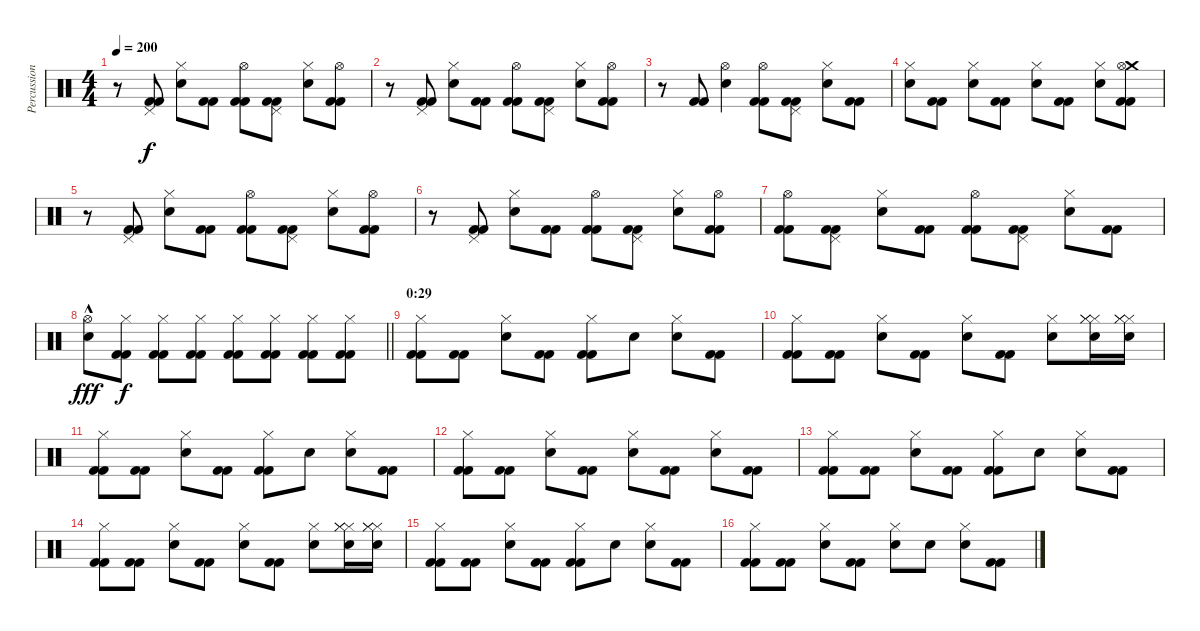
\track ("Percussion" "Percussion") {instrument percussion}
\staff {score}
\articulation defaults
\ts (4 4)
\tempo 200
\clef neutral
\ks c
r.8{dy f} ("Pedal Hi-Hat (hit)" "Kick (hit) 2" "Kick (hit) 2").8 ("Hi-Hat (closed)" "Snare (hit) 2").8 ("Kick (hit) 2" "Kick (hit) 2").8 ("Hi-Hat (open)" "Kick (hit) 2" "Kick (hit) 2").8 ("Pedal Hi-Hat (hit)" "Kick (hit) 2" "Kick (hit) 2").8 ("Hi-Hat (closed)" "Snare (hit) 2").8 ("Hi-Hat (open)" "Kick (hit) 2" "Kick (hit) 2").8 |
r.8 ("Pedal Hi-Hat (hit)" "Kick (hit) 2" "Kick (hit) 2").8 ("Hi-Hat (closed)" "Snare (hit) 2").8 ("Kick (hit) 2" "Kick (hit) 2").8 ("Hi-Hat (open)" "Kick (hit) 2" "Kick (hit) 2").8 ("Pedal Hi-Hat (hit)" "Kick (hit) 2" "Kick (hit) 2").8 ("Hi-Hat (closed)" "Snare (hit) 2").8 ("Hi-Hat (open)" "Kick (hit) 2" "Kick (hit) 2").8 |
r.8 ("Kick (hit) 2" "Kick (hit) 2").8 ("Hi-Hat (open)" "Snare (hit) 2").4 ("Hi-Hat (open)" "Kick (hit) 2" "Kick (hit) 2").8 ("Pedal Hi-Hat (hit)" "Kick (hit) 2" "Kick (hit) 2").8 ("Hi-Hat (closed)" "Snare (hit) 2").8 ("Kick (hit) 2" "Kick (hit) 2").8 |
("Hi-Hat (closed)" "Snare (hit) 2").8 ("Kick (hit) 2" "Kick (hit) 2").8 ("Hi-Hat (closed)" "Snare (hit) 2").8 ("Kick (hit) 2" "Kick (hit) 2").8 ("Hi-Hat (closed)" "Snare (hit) 2").8 ("Kick (hit) 2" "Kick (hit) 2").8 ("Hi-Hat (closed)" "Snare (hit) 2").8 ("Crash medium (hit)" "Hi-Hat (open)" "Kick (hit) 2" "Kick (hit) 2").8 |
r.8 ("Pedal Hi-Hat (hit)" "Kick (hit) 2" "Kick (hit) 2").8 ("Hi-Hat (closed)" "Snare (hit) 2").8 ("Kick (hit) 2" "Kick (hit) 2").8 ("Hi-Hat (open)" "Kick (hit) 2" "Kick (hit) 2").8 ("Pedal Hi-Hat (hit)" "Kick (hit) 2" "Kick (hit) 2").8 ("Hi-Hat (closed)" "Snare (hit) 2").8 ("Hi-Hat (open)" "Kick (hit) 2" "Kick (hit) 2").8 |
r.8 ("Pedal Hi-Hat (hit)" "Kick (hit) 2" "Kick (hit) 2").8 ("Hi-Hat (closed)" "Snare (hit) 2").8 ("Kick (hit) 2" "Kick (hit) 2").8 ("Hi-Hat (open)" "Kick (hit) 2" "Kick (hit) 2").8 ("Pedal Hi-Hat (hit)" "Kick (hit) 2" "Kick (hit) 2").8 ("Hi-Hat (closed)" "Snare (hit) 2").8 ("Hi-Hat (open)" "Kick (hit) 2" "Kick (hit) 2").8 |
("Hi-Hat (open)" "Kick (hit) 2" "Kick (hit) 2").8 ("Pedal Hi-Hat (hit)" "Kick (hit) 2" "Kick (hit) 2").8 ("Hi-Hat (closed)" "Snare (hit) 2").8 ("Kick (hit) 2" "Kick (hit) 2").8 ("Hi-Hat (open)" "Kick (hit) 2" "Kick (hit) 2").8 ("Pedal Hi-Hat (hit)" "Kick (hit) 2" "Kick (hit) 2").8 ("Hi-Hat (closed)" "Snare (hit) 2").8 ("Kick (hit) 2" "Kick (hit) 2").8 |
\barLineRight lightlight
("Hi-Hat (open)" "Snare (hit) 2"{hac}).8{dy fff} ("Hi-Hat (closed)" "Kick (hit) 2" "Kick (hit) 2").8{dy f} ("Hi-Hat (closed)" "Kick (hit) 2" "Kick (hit) 2").8 ("Hi-Hat (closed)" "Kick (hit) 2" "Kick (hit) 2").8 ("Hi-Hat (closed)" "Kick (hit) 2" "Kick (hit) 2").8 ("Hi-Hat (closed)" "Kick (hit) 2" "Kick (hit) 2").8 ("Hi-Hat (closed)" "Kick (hit) 2" "Kick (hit) 2").8 ("Hi-Hat (closed)" "Kick (hit) 2" "Kick (hit) 2").8 |
\section ("" "0:29")
("Hi-Hat (closed)" "Kick (hit) 2" "Kick (hit) 2").8 ("Kick (hit) 2" "Kick (hit) 2").8 ("Hi-Hat (closed)" "Snare (hit) 2").8 ("Kick (hit) 2" "Kick (hit) 2").8 ("Hi-Hat (closed)" "Kick (hit) 2" "Kick (hit) 2").8 "Snare (hit) 2".8 ("Hi-Hat (closed)" "Snare (hit) 2").8 ("Kick (hit) 2" "Kick (hit) 2").8 |
("Hi-Hat (closed)" "Kick (hit) 2" "Kick (hit) 2").8 ("Kick (hit) 2" "Kick (hit) 2").8 ("Hi-Hat (closed)" "Snare (hit) 2").8 ("Kick (hit) 2" "Kick (hit) 2").8 ("Hi-Hat (closed)" "Snare (hit) 2").8 ("Kick (hit) 2" "Kick (hit) 2").8 ("Hi-Hat (closed)" "Snare (hit) 2").8 ("Hi-Hat (closed)" "Hi-Hat (closed)" "Snare (hit) 2" "Hi-Hat (closed)").16 ("Hi-Hat (closed)" "Hi-Hat (closed)" "Snare (hit) 2" "Hi-Hat (closed)").16 |
("Hi-Hat (closed)" "Kick (hit) 2" "Kick (hit) 2").8 ("Kick (hit) 2" "Kick (hit) 2").8 ("Hi-Hat (closed)" "Snare (hit) 2").8 ("Kick (hit) 2" "Kick (hit) 2").8 ("Hi-Hat (closed)" "Kick (hit) 2" "Kick (hit) 2").8 "Snare (hit) 2".8 ("Hi-Hat (closed)" "Snare (hit) 2").8 ("Kick (hit) 2" "Kick (hit) 2").8 |
("Hi-Hat (closed)" "Kick (hit) 2" "Kick (hit) 2").8 ("Kick (hit) 2" "Kick (hit) 2").8 ("Hi-Hat (closed)" "Snare (hit) 2").8 ("Kick (hit) 2" "Kick (hit) 2").8 ("Hi-Hat (closed)" "Snare (hit) 2").8 ("Kick (hit) 2" "Kick (hit) 2").8 ("Hi-Hat (closed)" "Snare (hit) 2").8 ("Kick (hit) 2" "Kick (hit) 2").8 |
("Hi-Hat (closed)" "Kick (hit) 2" "Kick (hit) 2").8 ("Kick (hit) 2" "Kick (hit) 2").8 ("Hi-Hat (closed)" "Snare (hit) 2").8 ("Kick (hit) 2" "Kick (hit) 2").8 ("Hi-Hat (closed)" "Kick (hit) 2" "Kick (hit) 2").8 "Snare (hit) 2".8 ("Hi-Hat (closed)" "Snare (hit) 2").8 ("Kick (hit) 2" "Kick (hit) 2").8 |
("Hi-Hat (closed)" "Kick (hit) 2" "Kick (hit) 2").8 ("Kick (hit) 2" "Kick (hit) 2").8 ("Hi-Hat (closed)" "Snare (hit) 2").8 ("Kick (hit) 2" "Kick (hit) 2").8 ("Hi-Hat (closed)" "Snare (hit) 2").8 ("Kick (hit) 2" "Kick (hit) 2").8 ("Hi-Hat (closed)" "Snare (hit) 2").8 ("Hi-Hat (closed)" "Hi-Hat (closed)" "Snare (hit) 2" "Hi-Hat (closed)").16 ("Hi-Hat (closed)" "Hi-Hat (closed)" "Snare (hit) 2" "Hi-Hat (closed)").16 |
("Hi-Hat (closed)" "Kick (hit) 2" "Kick (hit) 2").8 ("Kick (hit) 2" "Kick (hit) 2").8 ("Hi-Hat (closed)" "Snare (hit) 2").8 ("Kick (hit) 2" "Kick (hit) 2").8 ("Hi-Hat (closed)" "Kick (hit) 2" "Kick (hit) 2").8 "Snare (hit) 2".8 ("Hi-Hat (closed)" "Snare (hit) 2").8 ("Kick (hit) 2" "Kick (hit) 2").8 |
("Hi-Hat (closed)" "Kick (hit) 2" "Kick (hit) 2").8 ("Kick (hit) 2" "Kick (hit) 2").8 ("Hi-Hat (closed)" "Snare (hit) 2").8 ("Kick (hit) 2" "Kick (hit) 2").8 ("Hi-Hat (closed)" "Snare (hit) 2").8 "Snare (hit) 2".8 ("Hi-Hat (closed)" "Snare (hit) 2").8 ("Kick (hit) 2" "Kick (hit) 2").8
